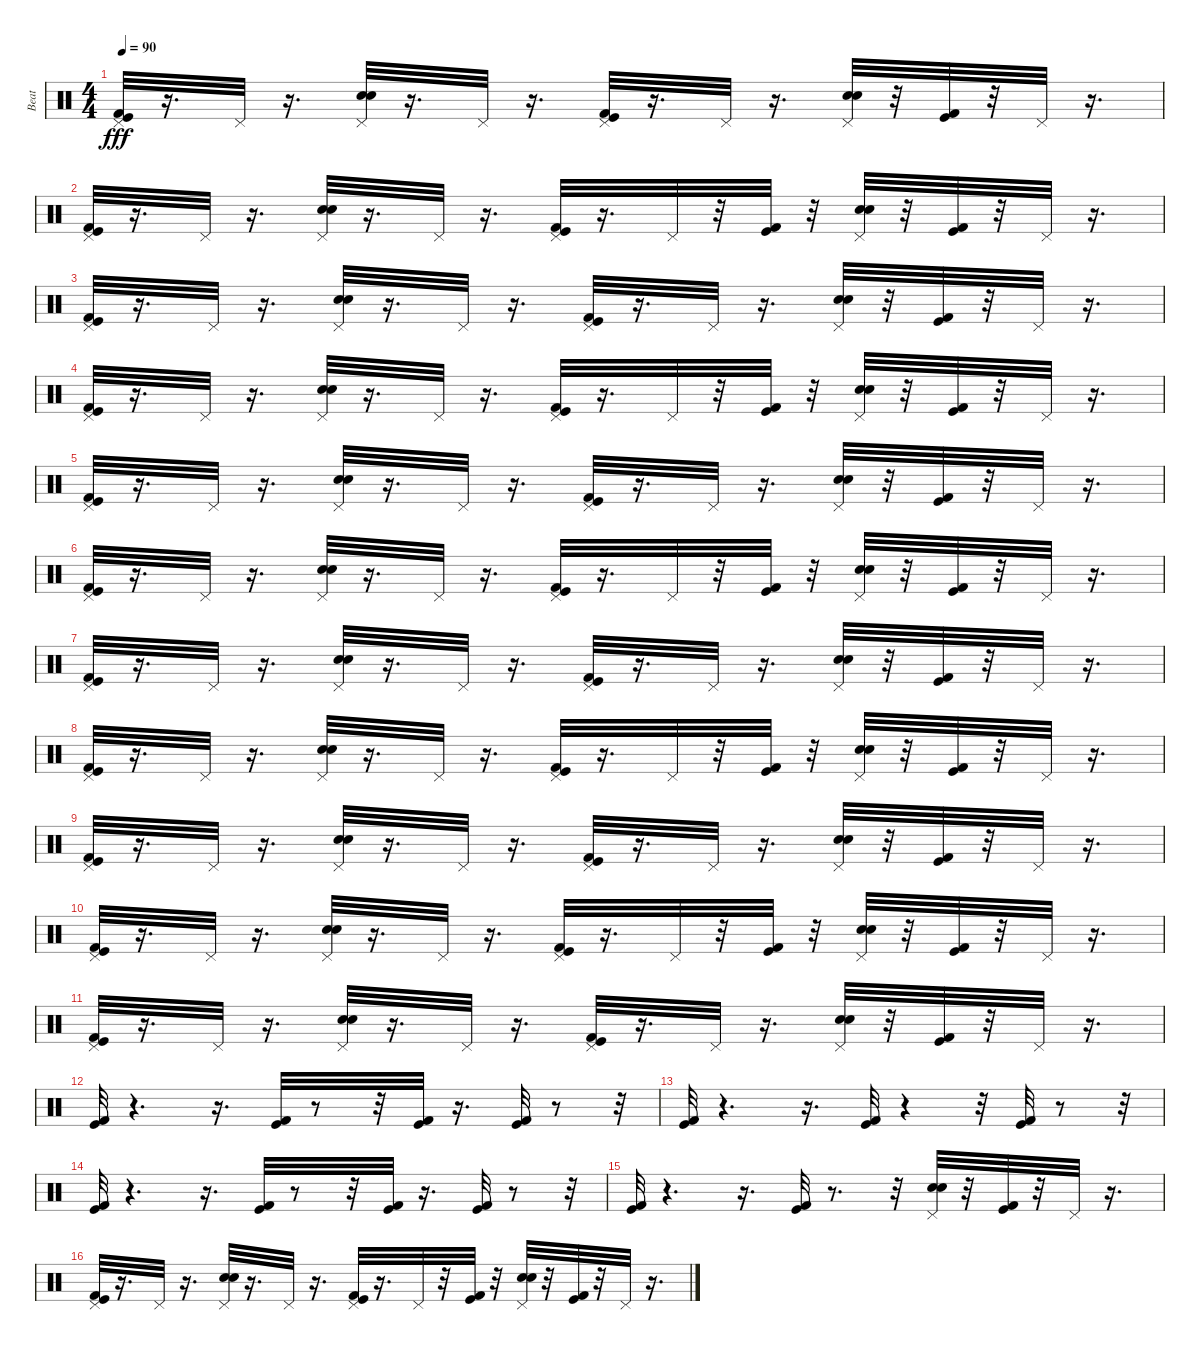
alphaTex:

\track ("Beat" "Beat") {instrument percussion}
\staff {score}
\articulation defaults
\ts (4 4)
\tempo 90
\clef neutral
\ks c
("Kick (hit) 2" "Kick (hit)" "Pedal Hi-Hat (hit)").32{dy fff} r.16{d} "Pedal Hi-Hat (hit)".32 r.16{d} ("Electric Snare (hit)" "Snare (hit) 2" "Pedal Hi-Hat (hit)").32 r.16{d} "Pedal Hi-Hat (hit)".32 r.16{d} ("Kick (hit) 2" "Kick (hit)" "Pedal Hi-Hat (hit)").32 r.16{d} "Pedal Hi-Hat (hit)".32 r.16{d} ("Electric Snare (hit)" "Snare (hit) 2" "Pedal Hi-Hat (hit)").32 r.32 ("Kick (hit) 2" "Kick (hit)").32 r.32 "Pedal Hi-Hat (hit)".32 r.16{d} |
("Kick (hit) 2" "Kick (hit)" "Pedal Hi-Hat (hit)").32 r.16{d} "Pedal Hi-Hat (hit)".32 r.16{d} ("Electric Snare (hit)" "Snare (hit) 2" "Pedal Hi-Hat (hit)").32 r.16{d} "Pedal Hi-Hat (hit)".32 r.16{d} ("Kick (hit) 2" "Kick (hit)" "Pedal Hi-Hat (hit)").32 r.16{d} "Pedal Hi-Hat (hit)".32 r.32 ("Kick (hit) 2" "Kick (hit)").32 r.32 ("Electric Snare (hit)" "Snare (hit) 2" "Pedal Hi-Hat (hit)").32 r.32 ("Kick (hit) 2" "Kick (hit)").32 r.32 "Pedal Hi-Hat (hit)".32 r.16{d} |
("Kick (hit) 2" "Kick (hit)" "Pedal Hi-Hat (hit)").32 r.16{d} "Pedal Hi-Hat (hit)".32 r.16{d} ("Electric Snare (hit)" "Snare (hit) 2" "Pedal Hi-Hat (hit)").32 r.16{d} "Pedal Hi-Hat (hit)".32 r.16{d} ("Kick (hit) 2" "Kick (hit)" "Pedal Hi-Hat (hit)").32 r.16{d} "Pedal Hi-Hat (hit)".32 r.16{d} ("Electric Snare (hit)" "Snare (hit) 2" "Pedal Hi-Hat (hit)").32 r.32 ("Kick (hit) 2" "Kick (hit)").32 r.32 "Pedal Hi-Hat (hit)".32 r.16{d} |
("Kick (hit) 2" "Kick (hit)" "Pedal Hi-Hat (hit)").32 r.16{d} "Pedal Hi-Hat (hit)".32 r.16{d} ("Electric Snare (hit)" "Snare (hit) 2" "Pedal Hi-Hat (hit)").32 r.16{d} "Pedal Hi-Hat (hit)".32 r.16{d} ("Kick (hit) 2" "Kick (hit)" "Pedal Hi-Hat (hit)").32 r.16{d} "Pedal Hi-Hat (hit)".32 r.32 ("Kick (hit) 2" "Kick (hit)").32 r.32 ("Electric Snare (hit)" "Snare (hit) 2" "Pedal Hi-Hat (hit)").32 r.32 ("Kick (hit) 2" "Kick (hit)").32 r.32 "Pedal Hi-Hat (hit)".32 r.16{d} |
("Kick (hit) 2" "Kick (hit)" "Pedal Hi-Hat (hit)").32 r.16{d} "Pedal Hi-Hat (hit)".32 r.16{d} ("Electric Snare (hit)" "Snare (hit) 2" "Pedal Hi-Hat (hit)").32 r.16{d} "Pedal Hi-Hat (hit)".32 r.16{d} ("Kick (hit) 2" "Kick (hit)" "Pedal Hi-Hat (hit)").32 r.16{d} "Pedal Hi-Hat (hit)".32 r.16{d} ("Electric Snare (hit)" "Snare (hit) 2" "Pedal Hi-Hat (hit)").32 r.32 ("Kick (hit) 2" "Kick (hit)").32 r.32 "Pedal Hi-Hat (hit)".32 r.16{d} |
("Kick (hit) 2" "Kick (hit)" "Pedal Hi-Hat (hit)").32 r.16{d} "Pedal Hi-Hat (hit)".32 r.16{d} ("Electric Snare (hit)" "Snare (hit) 2" "Pedal Hi-Hat (hit)").32 r.16{d} "Pedal Hi-Hat (hit)".32 r.16{d} ("Kick (hit) 2" "Kick (hit)" "Pedal Hi-Hat (hit)").32 r.16{d} "Pedal Hi-Hat (hit)".32 r.32 ("Kick (hit) 2" "Kick (hit)").32 r.32 ("Electric Snare (hit)" "Snare (hit) 2" "Pedal Hi-Hat (hit)").32 r.32 ("Kick (hit) 2" "Kick (hit)").32 r.32 "Pedal Hi-Hat (hit)".32 r.16{d} |
("Kick (hit) 2" "Kick (hit)" "Pedal Hi-Hat (hit)").32 r.16{d} "Pedal Hi-Hat (hit)".32 r.16{d} ("Electric Snare (hit)" "Snare (hit) 2" "Pedal Hi-Hat (hit)").32 r.16{d} "Pedal Hi-Hat (hit)".32 r.16{d} ("Kick (hit) 2" "Kick (hit)" "Pedal Hi-Hat (hit)").32 r.16{d} "Pedal Hi-Hat (hit)".32 r.16{d} ("Electric Snare (hit)" "Snare (hit) 2" "Pedal Hi-Hat (hit)").32 r.32 ("Kick (hit) 2" "Kick (hit)").32 r.32 "Pedal Hi-Hat (hit)".32 r.16{d} |
("Kick (hit) 2" "Kick (hit)" "Pedal Hi-Hat (hit)").32 r.16{d} "Pedal Hi-Hat (hit)".32 r.16{d} ("Electric Snare (hit)" "Snare (hit) 2" "Pedal Hi-Hat (hit)").32 r.16{d} "Pedal Hi-Hat (hit)".32 r.16{d} ("Kick (hit) 2" "Kick (hit)" "Pedal Hi-Hat (hit)").32 r.16{d} "Pedal Hi-Hat (hit)".32 r.32 ("Kick (hit) 2" "Kick (hit)").32 r.32 ("Electric Snare (hit)" "Snare (hit) 2" "Pedal Hi-Hat (hit)").32 r.32 ("Kick (hit) 2" "Kick (hit)").32 r.32 "Pedal Hi-Hat (hit)".32 r.16{d} |
("Kick (hit) 2" "Kick (hit)" "Pedal Hi-Hat (hit)").32 r.16{d} "Pedal Hi-Hat (hit)".32 r.16{d} ("Electric Snare (hit)" "Snare (hit) 2" "Pedal Hi-Hat (hit)").32 r.16{d} "Pedal Hi-Hat (hit)".32 r.16{d} ("Kick (hit) 2" "Kick (hit)" "Pedal Hi-Hat (hit)").32 r.16{d} "Pedal Hi-Hat (hit)".32 r.16{d} ("Electric Snare (hit)" "Snare (hit) 2" "Pedal Hi-Hat (hit)").32 r.32 ("Kick (hit) 2" "Kick (hit)").32 r.32 "Pedal Hi-Hat (hit)".32 r.16{d} |
("Kick (hit) 2" "Kick (hit)" "Pedal Hi-Hat (hit)").32 r.16{d} "Pedal Hi-Hat (hit)".32 r.16{d} ("Electric Snare (hit)" "Snare (hit) 2" "Pedal Hi-Hat (hit)").32 r.16{d} "Pedal Hi-Hat (hit)".32 r.16{d} ("Kick (hit) 2" "Kick (hit)" "Pedal Hi-Hat (hit)").32 r.16{d} "Pedal Hi-Hat (hit)".32 r.32 ("Kick (hit) 2" "Kick (hit)").32 r.32 ("Electric Snare (hit)" "Snare (hit) 2" "Pedal Hi-Hat (hit)").32 r.32 ("Kick (hit) 2" "Kick (hit)").32 r.32 "Pedal Hi-Hat (hit)".32 r.16{d} |
("Kick (hit) 2" "Kick (hit)" "Pedal Hi-Hat (hit)").32 r.16{d} "Pedal Hi-Hat (hit)".32 r.16{d} ("Electric Snare (hit)" "Snare (hit) 2" "Pedal Hi-Hat (hit)").32 r.16{d} "Pedal Hi-Hat (hit)".32 r.16{d} ("Kick (hit) 2" "Kick (hit)" "Pedal Hi-Hat (hit)").32 r.16{d} "Pedal Hi-Hat (hit)".32 r.16{d} ("Electric Snare (hit)" "Snare (hit) 2" "Pedal Hi-Hat (hit)").32 r.32 ("Kick (hit) 2" "Kick (hit)").32 r.32 "Pedal Hi-Hat (hit)".32 r.16{d} |
("Kick (hit) 2" "Kick (hit)").32 r.4{d} r.16{d} ("Kick (hit) 2" "Kick (hit)").32 r.8 r.32 ("Kick (hit) 2" "Kick (hit)").32 r.16{d} ("Kick (hit) 2" "Kick (hit)").32 r.8 r.32 |
("Kick (hit) 2" "Kick (hit)").32 r.4{d} r.16{d} ("Kick (hit) 2" "Kick (hit)").32 r.4 r.32 ("Kick (hit) 2" "Kick (hit)").32 r.8 r.32 |
("Kick (hit) 2" "Kick (hit)").32 r.4{d} r.16{d} ("Kick (hit) 2" "Kick (hit)").32 r.8 r.32 ("Kick (hit) 2" "Kick (hit)").32 r.16{d} ("Kick (hit) 2" "Kick (hit)").32 r.8 r.32 |
("Kick (hit) 2" "Kick (hit)").32 r.4{d} r.16{d} ("Kick (hit) 2" "Kick (hit)").32 r.8{d} r.32 ("Electric Snare (hit)" "Snare (hit) 2" "Pedal Hi-Hat (hit)").32 r.32 ("Kick (hit) 2" "Kick (hit)").32 r.32 "Pedal Hi-Hat (hit)".32 r.16{d} |
("Kick (hit) 2" "Kick (hit)" "Pedal Hi-Hat (hit)").32 r.16{d} "Pedal Hi-Hat (hit)".32 r.16{d} ("Electric Snare (hit)" "Snare (hit) 2" "Pedal Hi-Hat (hit)").32 r.16{d} "Pedal Hi-Hat (hit)".32 r.16{d} ("Kick (hit) 2" "Kick (hit)" "Pedal Hi-Hat (hit)").32 r.16{d} "Pedal Hi-Hat (hit)".32 r.32 ("Kick (hit) 2" "Kick (hit)").32 r.32 ("Electric Snare (hit)" "Snare (hit) 2" "Pedal Hi-Hat (hit)").32 r.32 ("Kick (hit) 2" "Kick (hit)").32 r.32 "Pedal Hi-Hat (hit)".32 r.16{d}
